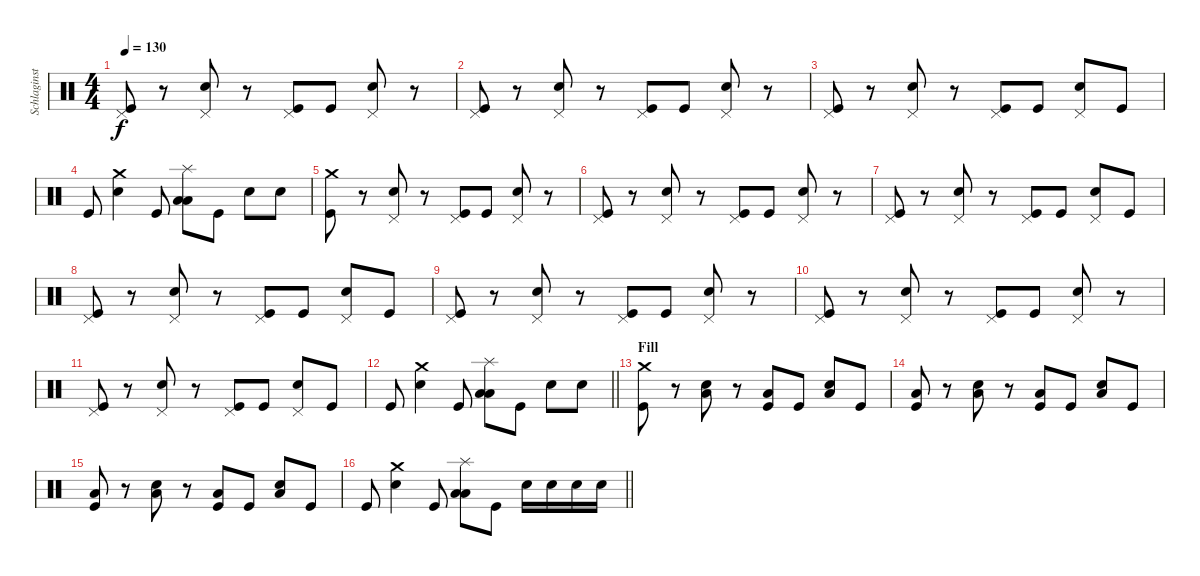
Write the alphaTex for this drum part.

\track ("Schlaginstrumente - Auswahl" "Schlaginst") {instrument percussion}
\staff {score}
\articulation defaults
\ts (4 4)
\tempo 130
\clef neutral
\ks c
("Pedal Hi-Hat (hit)" "Kick (hit)").8{dy f} r.8 ("Pedal Hi-Hat (hit)" "Snare (hit) 2").8 r.8 ("Pedal Hi-Hat (hit)" "Kick (hit)").8 "Kick (hit)".8 ("Pedal Hi-Hat (hit)" "Snare (hit) 2").8 r.8 |
("Pedal Hi-Hat (hit)" "Kick (hit)").8 r.8 ("Pedal Hi-Hat (hit)" "Snare (hit) 2").8 r.8 ("Pedal Hi-Hat (hit)" "Kick (hit)").8 "Kick (hit)".8 ("Pedal Hi-Hat (hit)" "Snare (hit) 2").8 r.8 |
("Pedal Hi-Hat (hit)" "Kick (hit)").8 r.8 ("Pedal Hi-Hat (hit)" "Snare (hit) 2").8 r.8 ("Pedal Hi-Hat (hit)" "Kick (hit)").8 "Kick (hit)".8 ("Pedal Hi-Hat (hit)" "Snare (hit) 2").8 "Kick (hit)".8 |
"Kick (hit)".8 ("Crash medium (hit)" "Snare (hit) 2").4 "Kick (hit)".8 ("Splash (hit)" "Low Tom (hit)" "Low Tom (hit)").8 "Kick (hit)".8 "Snare (hit) 2".8 "Snare (hit) 2".8 |
("Crash medium (hit)" "Kick (hit)").8 r.8 ("Pedal Hi-Hat (hit)" "Snare (hit) 2").8 r.8 ("Pedal Hi-Hat (hit)" "Kick (hit)").8 "Kick (hit)".8 ("Pedal Hi-Hat (hit)" "Snare (hit) 2").8 r.8 |
("Pedal Hi-Hat (hit)" "Kick (hit)").8 r.8 ("Pedal Hi-Hat (hit)" "Snare (hit) 2").8 r.8 ("Pedal Hi-Hat (hit)" "Kick (hit)").8 "Kick (hit)".8 ("Pedal Hi-Hat (hit)" "Snare (hit) 2").8 r.8 |
("Pedal Hi-Hat (hit)" "Kick (hit)").8 r.8 ("Pedal Hi-Hat (hit)" "Snare (hit) 2").8 r.8 ("Pedal Hi-Hat (hit)" "Kick (hit)").8 "Kick (hit)".8 ("Pedal Hi-Hat (hit)" "Snare (hit) 2").8 "Kick (hit)".8 |
("Pedal Hi-Hat (hit)" "Kick (hit)").8 r.8 ("Pedal Hi-Hat (hit)" "Snare (hit) 2").8 r.8 ("Pedal Hi-Hat (hit)" "Kick (hit)").8 "Kick (hit)".8 ("Pedal Hi-Hat (hit)" "Snare (hit) 2").8 "Kick (hit)".8 |
("Pedal Hi-Hat (hit)" "Kick (hit)").8 r.8 ("Pedal Hi-Hat (hit)" "Snare (hit) 2").8 r.8 ("Pedal Hi-Hat (hit)" "Kick (hit)").8 "Kick (hit)".8 ("Pedal Hi-Hat (hit)" "Snare (hit) 2").8 r.8 |
("Pedal Hi-Hat (hit)" "Kick (hit)").8 r.8 ("Pedal Hi-Hat (hit)" "Snare (hit) 2").8 r.8 ("Pedal Hi-Hat (hit)" "Kick (hit)").8 "Kick (hit)".8 ("Pedal Hi-Hat (hit)" "Snare (hit) 2").8 r.8 |
("Pedal Hi-Hat (hit)" "Kick (hit)").8 r.8 ("Pedal Hi-Hat (hit)" "Snare (hit) 2").8 r.8 ("Pedal Hi-Hat (hit)" "Kick (hit)").8 "Kick (hit)".8 ("Pedal Hi-Hat (hit)" "Snare (hit) 2").8 "Kick (hit)".8 |
\barLineRight lightlight "Kick (hit)".8
("Crash medium (hit)" "Snare (hit) 2").4 "Kick (hit)".8 ("Splash (hit)" "Low Tom (hit)" "Low Tom (hit)").8 "Kick (hit)".8 "Snare (hit) 2".8 "Snare (hit) 2".8 |
\section ("" "Fill")
("Crash medium (hit)" "Kick (hit)").8 r.8 ("Low Tom (hit)" "Snare (hit) 2").8 r.8 ("Low Tom (hit)" "Kick (hit)").8 "Kick (hit)".8 ("Low Tom (hit)" "Snare (hit) 2").8 "Kick (hit)".8 |
("Low Tom (hit)" "Kick (hit)").8 r.8 ("Low Tom (hit)" "Snare (hit) 2").8 r.8 ("Low Tom (hit)" "Kick (hit)").8 "Kick (hit)".8 ("Low Tom (hit)" "Snare (hit) 2").8 "Kick (hit)".8 |
("Low Tom (hit)" "Kick (hit)").8 r.8 ("Low Tom (hit)" "Snare (hit) 2").8 r.8 ("Low Tom (hit)" "Kick (hit)").8 "Kick (hit)".8 ("Low Tom (hit)" "Snare (hit) 2").8 "Kick (hit)".8 |
\barLineRight lightlight "Kick (hit)".8
("Crash medium (hit)" "Snare (hit) 2").4 "Kick (hit)".8 ("Splash (hit)" "Low Tom (hit)" "Low Tom (hit)").8 "Kick (hit)".8 "Snare (hit) 2".16 "Snare (hit) 2".16 "Snare (hit) 2".16 "Snare (hit) 2".16
